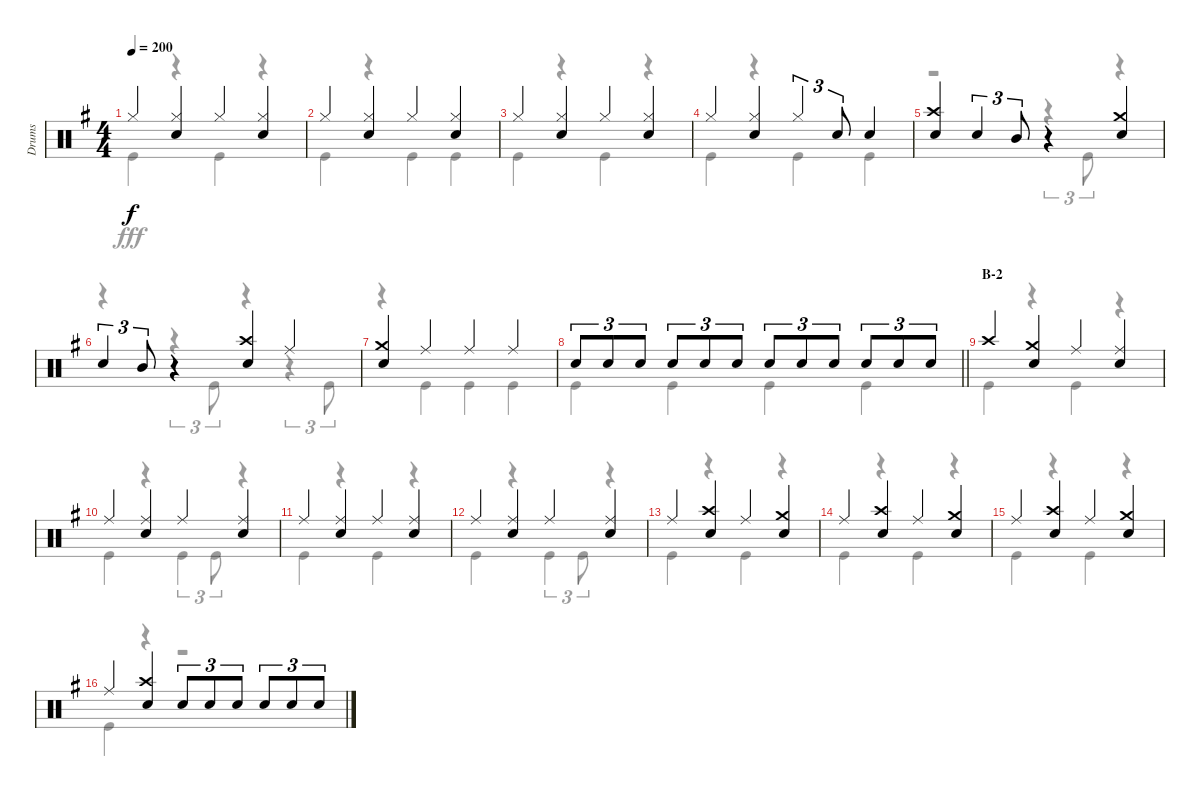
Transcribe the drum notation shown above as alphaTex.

\track ("Drums" "Drums") {instrument percussion}
\staff {score}
\articulation defaults
\voice
\ts (4 4)
\tempo 200
\clef neutral
\ks g "Hi-Hat (closed)".4{dy f}
("Hi-Hat (closed)" "Snare (hit) 2").4 "Hi-Hat (closed)".4 ("Hi-Hat (closed)" "Snare (hit) 2").4 |
"Hi-Hat (closed)".4 ("Hi-Hat (closed)" "Snare (hit) 2").4 "Hi-Hat (closed)".4 ("Hi-Hat (closed)" "Snare (hit) 2").4 |
"Hi-Hat (closed)".4 ("Hi-Hat (closed)" "Snare (hit) 2").4 "Hi-Hat (closed)".4 ("Hi-Hat (closed)" "Snare (hit) 2").4 |
"Hi-Hat (closed)".4 ("Hi-Hat (closed)" "Snare (hit) 2").4 "Hi-Hat (closed)".4{tu (3 2)} "Snare (hit) 2".8{tu (3 2)} "Snare (hit) 2".4 |
("Crash high (hit)" "Snare (hit) 2").4 "Snare (hit) 2".4{tu (3 2)} "Mid Tom (hit)".8{tu (3 2)} r.4 ("Crash medium (hit)" "Snare (hit) 2").4 |
"Snare (hit) 2".4{tu (3 2)} "Mid Tom (hit)".8{tu (3 2)} r.4 ("Crash high (hit)" "Snare (hit) 2").4 "Ride (middle)".4 |
("Crash medium (hit)" "Snare (hit) 2").4 "Ride (middle)".4 "Ride (middle)".4 "Ride (middle)".4 |
\barLineRight lightlight "Snare (hit) 2".8{tu (3 2)} "Snare (hit) 2".8{tu (3 2)} "Snare (hit) 2".8{tu (3 2)} "Snare (hit) 2".8{tu (3 2)} "Snare (hit) 2".8{tu (3 2)} "Snare (hit) 2".8{tu (3 2)} "Snare (hit) 2".8{tu (3 2)} "Snare (hit) 2".8{tu (3 2)} "Snare (hit) 2".8{tu (3 2)} "Snare (hit) 2".8{tu (3 2)} "Snare (hit) 2".8{tu (3 2)} "Snare (hit) 2".8{tu (3 2)}
|
\section ("" "B-2")
"Crash high (hit)".4 ("Crash medium (hit)" "Snare (hit) 2").4 "Ride (middle)".4 ("Ride (middle)" "Snare (hit) 2").4 |
"Ride (middle)".4 ("Ride (middle)" "Snare (hit) 2").4 "Ride (middle)".4 ("Ride (middle)" "Snare (hit) 2").4 |
"Ride (middle)".4 ("Ride (middle)" "Snare (hit) 2").4 "Ride (middle)".4 ("Ride (middle)" "Snare (hit) 2").4 |
"Ride (middle)".4 ("Ride (middle)" "Snare (hit) 2").4 "Ride (middle)".4 ("Ride (middle)" "Snare (hit) 2").4 |
"Ride (middle)".4 ("Crash high (hit)" "Snare (hit) 2").4 "Ride (middle)".4 ("Crash medium (hit)" "Snare (hit) 2").4 |
"Ride (middle)".4 ("Crash high (hit)" "Snare (hit) 2").4 "Ride (middle)".4 ("Crash medium (hit)" "Snare (hit) 2").4 |
"Ride (middle)".4 ("Crash high (hit)" "Snare (hit) 2").4 "Ride (middle)".4 ("Crash medium (hit)" "Snare (hit) 2").4 |
"Ride (middle)".4 ("Crash high (hit)" "Snare (hit) 2").4 "Snare (hit) 2".8{tu (3 2)} "Snare (hit) 2".8{tu (3 2)} "Snare (hit) 2".8{tu (3 2)} "Snare (hit) 2".8{tu (3 2)} "Snare (hit) 2".8{tu (3 2)} "Snare (hit) 2".8{tu (3 2)}
\voice
\clef neutral
\ottava regular
\simile none
\ks g "Kick (hit)".4{dy fff}
r.4 "Kick (hit)".4 r.4 |
"Kick (hit)".4 r.4 "Kick (hit)".4 "Kick (hit)".4 |
"Kick (hit)".4 r.4 "Kick (hit)".4 r.4 |
"Kick (hit)".4 r.4 "Kick (hit)".4 "Kick (hit)".4 |
r.2 r.4{tu (3 2)} "Kick (hit)".8{tu (3 2)} r.4 |
r.4 r.4{tu (3 2)} "Kick (hit)".8{tu (3 2)} r.4 r.4{tu (3 2)} "Kick (hit)".8{tu (3 2)} |
r.4 "Kick (hit)".4 "Kick (hit)".4 "Kick (hit)".4 |
\barLineRight lightlight "Kick (hit)".4 "Kick (hit)".4 "Kick (hit)".4 "Kick (hit)".4
|
"Kick (hit)".4 r.4 "Kick (hit)".4 r.4 |
"Kick (hit)".4 r.4 "Kick (hit)".4{tu (3 2)} "Kick (hit)".8{tu (3 2)} r.4 |
"Kick (hit)".4 r.4 "Kick (hit)".4 r.4 |
"Kick (hit)".4 r.4 "Kick (hit)".4{tu (3 2)} "Kick (hit)".8{tu (3 2)} r.4 |
"Kick (hit)".4 r.4 "Kick (hit)".4 r.4 |
"Kick (hit)".4 r.4 "Kick (hit)".4 r.4 |
"Kick (hit)".4 r.4 "Kick (hit)".4 r.4 |
"Kick (hit)".4 r.4 r.2
